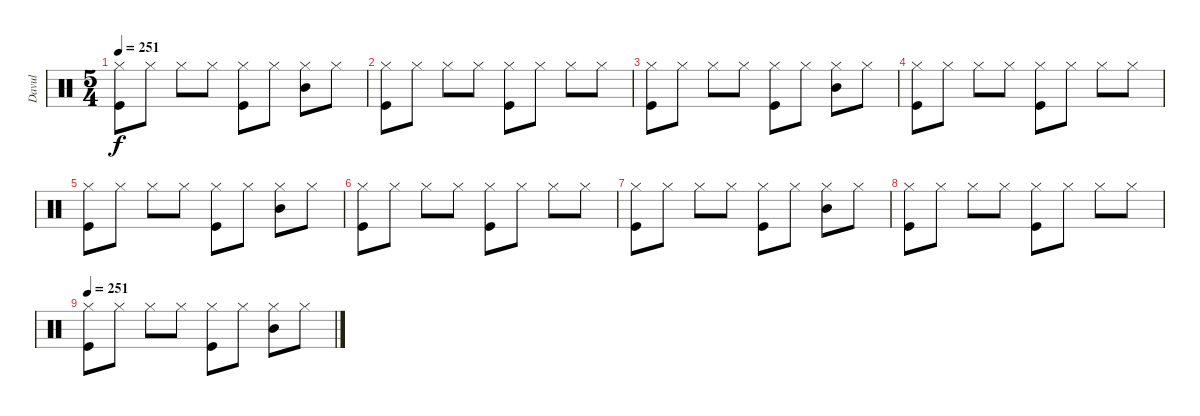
\track ("Davul" "Davul") {instrument percussion}
\staff {score}
\articulation defaults
\ts (5 4)
\tempo 251
\clef neutral
\ks c
("Hi-Hat (closed)" "Kick (hit)").8{dy f} "Hi-Hat (closed)".8 "Hi-Hat (closed)".8 "Hi-Hat (closed)".8 ("Hi-Hat (closed)" "Kick (hit)").8 "Hi-Hat (closed)".8 ("Mid Tom (hit)" "Hi-Hat (closed)").8 "Hi-Hat (closed)".8 |
("Hi-Hat (closed)" "Kick (hit)").8 "Hi-Hat (closed)".8 "Hi-Hat (closed)".8 "Hi-Hat (closed)".8 ("Hi-Hat (closed)" "Kick (hit)").8 "Hi-Hat (closed)".8 "Hi-Hat (closed)".8 "Hi-Hat (closed)".8 |
("Hi-Hat (closed)" "Kick (hit)").8 "Hi-Hat (closed)".8 "Hi-Hat (closed)".8 "Hi-Hat (closed)".8 ("Hi-Hat (closed)" "Kick (hit)").8 "Hi-Hat (closed)".8 ("Mid Tom (hit)" "Hi-Hat (closed)").8 "Hi-Hat (closed)".8 |
("Hi-Hat (closed)" "Kick (hit)").8 "Hi-Hat (closed)".8 "Hi-Hat (closed)".8 "Hi-Hat (closed)".8 ("Hi-Hat (closed)" "Kick (hit)").8 "Hi-Hat (closed)".8 "Hi-Hat (closed)".8 "Hi-Hat (closed)".8 |
("Hi-Hat (closed)" "Kick (hit)").8 "Hi-Hat (closed)".8 "Hi-Hat (closed)".8 "Hi-Hat (closed)".8 ("Hi-Hat (closed)" "Kick (hit)").8 "Hi-Hat (closed)".8 ("Mid Tom (hit)" "Hi-Hat (closed)").8 "Hi-Hat (closed)".8 |
("Hi-Hat (closed)" "Kick (hit)").8 "Hi-Hat (closed)".8 "Hi-Hat (closed)".8 "Hi-Hat (closed)".8 ("Hi-Hat (closed)" "Kick (hit)").8 "Hi-Hat (closed)".8 "Hi-Hat (closed)".8 "Hi-Hat (closed)".8 |
("Hi-Hat (closed)" "Kick (hit)").8 "Hi-Hat (closed)".8 "Hi-Hat (closed)".8 "Hi-Hat (closed)".8 ("Hi-Hat (closed)" "Kick (hit)").8 "Hi-Hat (closed)".8 ("Mid Tom (hit)" "Hi-Hat (closed)").8 "Hi-Hat (closed)".8 |
("Hi-Hat (closed)" "Kick (hit)").8 "Hi-Hat (closed)".8 "Hi-Hat (closed)".8 "Hi-Hat (closed)".8 ("Hi-Hat (closed)" "Kick (hit)").8 "Hi-Hat (closed)".8 "Hi-Hat (closed)".8 "Hi-Hat (closed)".8 |
\tempo 251
("Hi-Hat (closed)" "Kick (hit)").8 "Hi-Hat (closed)".8 "Hi-Hat (closed)".8 "Hi-Hat (closed)".8 ("Hi-Hat (closed)" "Kick (hit)").8 "Hi-Hat (closed)".8 ("Mid Tom (hit)" "Hi-Hat (closed)").8 "Hi-Hat (closed)".8
